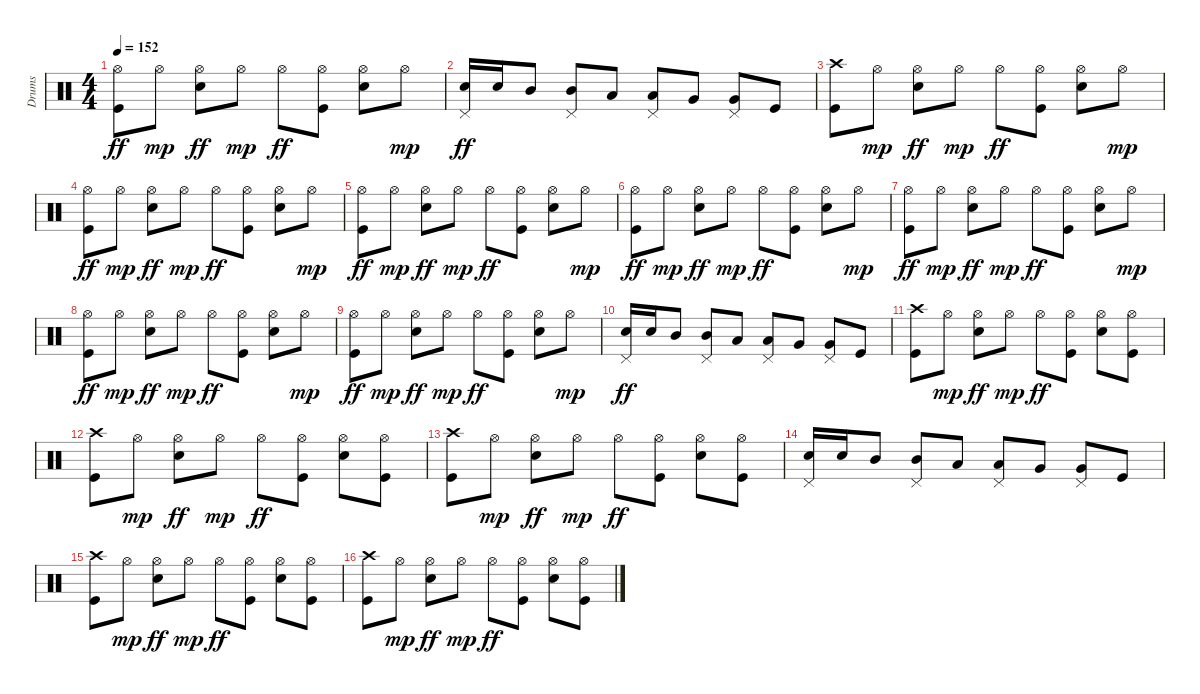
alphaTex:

\track ("Drums" "Drums") {instrument percussion}
\staff {score}
\articulation defaults
\ts (4 4)
\tempo 152
\clef neutral
\ks c
("Hi-Hat (open)" "Kick (hit)").8{dy ff} "Hi-Hat (open)".8{dy mp} ("Hi-Hat (open)" "Snare (hit) 2").8{dy ff} "Hi-Hat (open)".8{dy mp} "Hi-Hat (open)".8{dy ff} ("Hi-Hat (open)" "Kick (hit)").8 ("Hi-Hat (open)" "Snare (hit) 2").8 "Hi-Hat (open)".8{dy mp} |
("Pedal Hi-Hat (hit)" "Snare (hit) 2").16{dy ff} "Snare (hit) 2".16 "Mid Tom (hit)".8 ("Pedal Hi-Hat (hit)" "Mid Tom (hit)").8 "Low Tom (hit)".8 ("Pedal Hi-Hat (hit)" "Low Tom (hit)").8 "Very Low Tom (hit)".8 ("Pedal Hi-Hat (hit)" "Very Low Tom (hit)").8 "Kick (hit)".8 |
("Crash high (hit)" "Kick (hit)").8 "Hi-Hat (open)".8{dy mp} ("Hi-Hat (open)" "Snare (hit) 2").8{dy ff} "Hi-Hat (open)".8{dy mp} "Hi-Hat (open)".8{dy ff} ("Hi-Hat (open)" "Kick (hit)").8 ("Hi-Hat (open)" "Snare (hit) 2").8 "Hi-Hat (open)".8{dy mp} |
("Hi-Hat (open)" "Kick (hit)").8{dy ff} "Hi-Hat (open)".8{dy mp} ("Hi-Hat (open)" "Snare (hit) 2").8{dy ff} "Hi-Hat (open)".8{dy mp} "Hi-Hat (open)".8{dy ff} ("Hi-Hat (open)" "Kick (hit)").8 ("Hi-Hat (open)" "Snare (hit) 2").8 "Hi-Hat (open)".8{dy mp} |
("Hi-Hat (open)" "Kick (hit)").8{dy ff} "Hi-Hat (open)".8{dy mp} ("Hi-Hat (open)" "Snare (hit) 2").8{dy ff} "Hi-Hat (open)".8{dy mp} "Hi-Hat (open)".8{dy ff} ("Hi-Hat (open)" "Kick (hit)").8 ("Hi-Hat (open)" "Snare (hit) 2").8 "Hi-Hat (open)".8{dy mp} |
("Hi-Hat (open)" "Kick (hit)").8{dy ff} "Hi-Hat (open)".8{dy mp} ("Hi-Hat (open)" "Snare (hit) 2").8{dy ff} "Hi-Hat (open)".8{dy mp} "Hi-Hat (open)".8{dy ff} ("Hi-Hat (open)" "Kick (hit)").8 ("Hi-Hat (open)" "Snare (hit) 2").8 "Hi-Hat (open)".8{dy mp} |
("Hi-Hat (open)" "Kick (hit)").8{dy ff} "Hi-Hat (open)".8{dy mp} ("Hi-Hat (open)" "Snare (hit) 2").8{dy ff} "Hi-Hat (open)".8{dy mp} "Hi-Hat (open)".8{dy ff} ("Hi-Hat (open)" "Kick (hit)").8 ("Hi-Hat (open)" "Snare (hit) 2").8 "Hi-Hat (open)".8{dy mp} |
("Hi-Hat (open)" "Kick (hit)").8{dy ff} "Hi-Hat (open)".8{dy mp} ("Hi-Hat (open)" "Snare (hit) 2").8{dy ff} "Hi-Hat (open)".8{dy mp} "Hi-Hat (open)".8{dy ff} ("Hi-Hat (open)" "Kick (hit)").8 ("Hi-Hat (open)" "Snare (hit) 2").8 "Hi-Hat (open)".8{dy mp} |
("Hi-Hat (open)" "Kick (hit)").8{dy ff} "Hi-Hat (open)".8{dy mp} ("Hi-Hat (open)" "Snare (hit) 2").8{dy ff} "Hi-Hat (open)".8{dy mp} "Hi-Hat (open)".8{dy ff} ("Hi-Hat (open)" "Kick (hit)").8 ("Hi-Hat (open)" "Snare (hit) 2").8 "Hi-Hat (open)".8{dy mp} |
("Pedal Hi-Hat (hit)" "Snare (hit) 2").16{dy ff} "Snare (hit) 2".16 "Mid Tom (hit)".8 ("Pedal Hi-Hat (hit)" "Mid Tom (hit)").8 "Low Tom (hit)".8 ("Pedal Hi-Hat (hit)" "Low Tom (hit)").8 "Very Low Tom (hit)".8 ("Pedal Hi-Hat (hit)" "Very Low Tom (hit)").8 "Kick (hit)".8 |
("Crash high (hit)" "Kick (hit)").8 "Hi-Hat (open)".8{dy mp} ("Hi-Hat (open)" "Snare (hit) 2").8{dy ff} "Hi-Hat (open)".8{dy mp} "Hi-Hat (open)".8{dy ff} ("Hi-Hat (open)" "Kick (hit)").8 ("Hi-Hat (open)" "Snare (hit) 2").8 ("Hi-Hat (open)" "Kick (hit)").8 |
("Crash high (hit)" "Kick (hit)").8 "Hi-Hat (open)".8{dy mp} ("Hi-Hat (open)" "Snare (hit) 2").8{dy ff} "Hi-Hat (open)".8{dy mp} "Hi-Hat (open)".8{dy ff} ("Hi-Hat (open)" "Kick (hit)").8 ("Hi-Hat (open)" "Snare (hit) 2").8 ("Hi-Hat (open)" "Kick (hit)").8 |
("Crash high (hit)" "Kick (hit)").8 "Hi-Hat (open)".8{dy mp} ("Hi-Hat (open)" "Snare (hit) 2").8{dy ff} "Hi-Hat (open)".8{dy mp} "Hi-Hat (open)".8{dy ff} ("Hi-Hat (open)" "Kick (hit)").8 ("Hi-Hat (open)" "Snare (hit) 2").8 ("Hi-Hat (open)" "Kick (hit)").8 |
("Pedal Hi-Hat (hit)" "Snare (hit) 2").16 "Snare (hit) 2".16 "Mid Tom (hit)".8 ("Pedal Hi-Hat (hit)" "Mid Tom (hit)").8 "Low Tom (hit)".8 ("Pedal Hi-Hat (hit)" "Low Tom (hit)").8 "Very Low Tom (hit)".8 ("Pedal Hi-Hat (hit)" "Very Low Tom (hit)").8 "Kick (hit)".8 |
("Crash high (hit)" "Kick (hit)").8 "Hi-Hat (open)".8{dy mp} ("Hi-Hat (open)" "Snare (hit) 2").8{dy ff} "Hi-Hat (open)".8{dy mp} "Hi-Hat (open)".8{dy ff} ("Hi-Hat (open)" "Kick (hit)").8 ("Hi-Hat (open)" "Snare (hit) 2").8 ("Hi-Hat (open)" "Kick (hit)").8 |
("Crash high (hit)" "Kick (hit)").8 "Hi-Hat (open)".8{dy mp} ("Hi-Hat (open)" "Snare (hit) 2").8{dy ff} "Hi-Hat (open)".8{dy mp} "Hi-Hat (open)".8{dy ff} ("Hi-Hat (open)" "Kick (hit)").8 ("Hi-Hat (open)" "Snare (hit) 2").8 ("Hi-Hat (open)" "Kick (hit)").8
